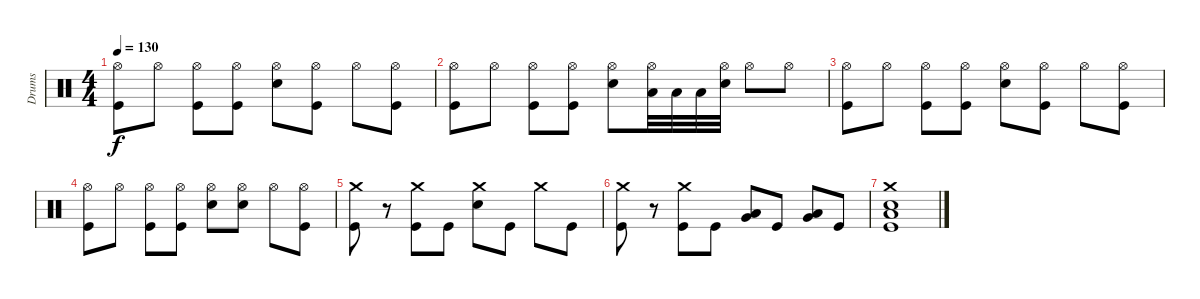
\track ("Drums" "Drums") {instrument percussion}
\staff {score}
\articulation defaults
\ts (4 4)
\tempo 130
\clef neutral
\ks c
("Hi-Hat (open)" "Kick (hit)").8{dy f} "Hi-Hat (open)".8 ("Hi-Hat (open)" "Kick (hit)").8 ("Hi-Hat (open)" "Kick (hit)").8 ("Hi-Hat (open)" "Snare (hit) 2").8 ("Hi-Hat (open)" "Kick (hit)").8 "Hi-Hat (open)".8 ("Hi-Hat (open)" "Kick (hit)").8 |
("Hi-Hat (open)" "Kick (hit)").8 "Hi-Hat (open)".8 ("Hi-Hat (open)" "Kick (hit)").8 ("Hi-Hat (open)" "Kick (hit)").8 ("Hi-Hat (open)" "Snare (hit) 2").8 ("Hi-Hat (open)" "Low Floor Tom (hit)").32 "Low Floor Tom (hit)".32 "Low Floor Tom (hit)".32 ("Hi-Hat (open)" "Snare (hit) 2").32 "Hi-Hat (open)".8 "Hi-Hat (open)".8 |
("Hi-Hat (open)" "Kick (hit)").8 "Hi-Hat (open)".8 ("Hi-Hat (open)" "Kick (hit)").8 ("Hi-Hat (open)" "Kick (hit)").8 ("Hi-Hat (open)" "Snare (hit) 2").8 ("Hi-Hat (open)" "Kick (hit)").8 "Hi-Hat (open)".8 ("Hi-Hat (open)" "Kick (hit)").8 |
("Hi-Hat (open)" "Kick (hit)").8 "Hi-Hat (open)".8 ("Hi-Hat (open)" "Kick (hit)").8 ("Hi-Hat (open)" "Kick (hit)").8 ("Hi-Hat (open)" "Snare (hit) 2").8 ("Hi-Hat (open)" "Snare (hit) 2").8 "Hi-Hat (open)".8 ("Hi-Hat (open)" "Kick (hit)").8 |
("Crash medium (hit)" "Kick (hit)").8 r.8 ("Crash medium (hit)" "Kick (hit)").8 "Kick (hit)".8 ("Crash medium (hit)" "Snare (hit) 2").8 "Kick (hit)".8 "Crash medium (hit)".8 "Kick (hit)".8 |
("Crash medium (hit)" "Kick (hit)").8 r.8 ("Crash medium (hit)" "Kick (hit)").8 "Kick (hit)".8 ("Very Low Tom (hit)" "Low Floor Tom (hit)").8 "Kick (hit)".8 ("Very Low Tom (hit)" "Low Floor Tom (hit)").8 "Kick (hit)".8 |
("Crash medium (hit)" "Snare (hit) 2" "Low Floor Tom (hit)" "Kick (hit)").1
